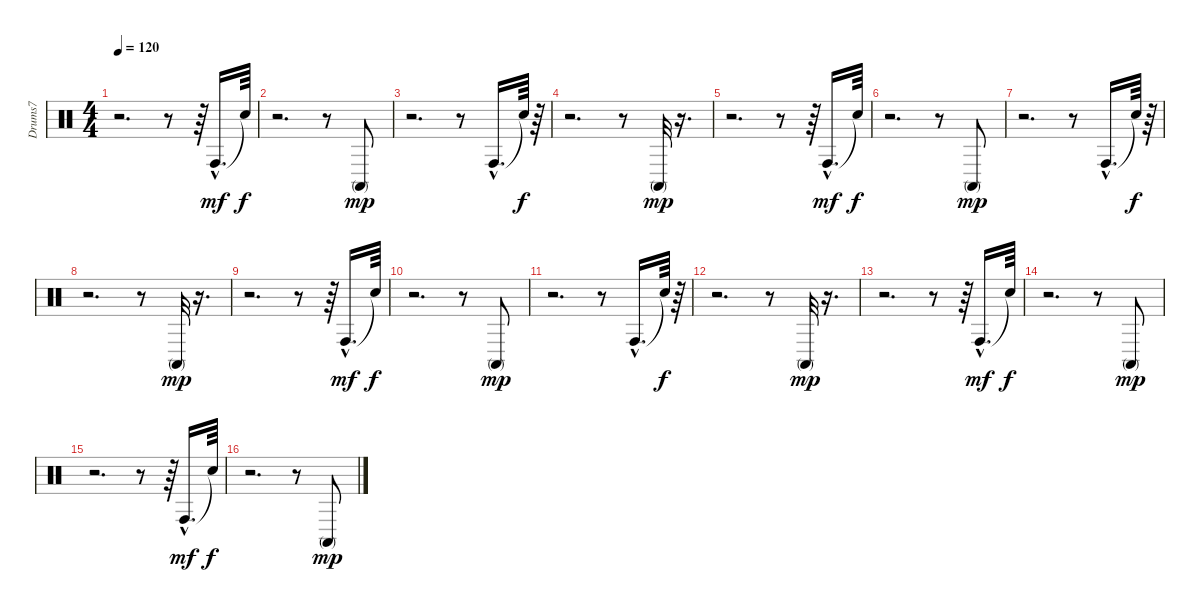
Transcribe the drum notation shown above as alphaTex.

\track ("Drums7" "Drums7") {instrument percussion}
\staff {score}
\articulation defaults
\ts (4 4)
\tempo 120
\clef neutral
\ks c
r.2{d dy mp} r.8 r.64 "Conga high (hit)"{hac}.16{d dy mf} "Snare (hit)"{t}.64{dy f} |
r.2{d} r.8 "Conga high (mute)".8{dy mp} |
r.2{d} r.8 "Conga high (hit)"{hac}.16{d} "Snare (hit)"{t}.64{dy f} r.64 |
r.2{d} r.8 "Conga high (mute)".32{dy mp} r.16{d} |
r.2{d} r.8 r.64 "Conga high (hit)"{hac}.16{d dy mf} "Snare (hit)"{t}.64{dy f} |
r.2{d} r.8 "Conga high (mute)".8{dy mp} |
r.2{d} r.8 "Conga high (hit)"{hac}.16{d} "Snare (hit)"{t}.64{dy f} r.64 |
r.2{d} r.8 "Conga high (mute)".32{dy mp} r.16{d} |
r.2{d} r.8 r.64 "Conga high (hit)"{hac}.16{d dy mf} "Snare (hit)"{t}.64{dy f} |
r.2{d} r.8 "Conga high (mute)".8{dy mp} |
r.2{d} r.8 "Conga high (hit)"{hac}.16{d} "Snare (hit)"{t}.64{dy f} r.64 |
r.2{d} r.8 "Conga high (mute)".32{dy mp} r.16{d} |
r.2{d} r.8 r.64 "Conga high (hit)"{hac}.16{d dy mf} "Snare (hit)"{t}.64{dy f} |
r.2{d} r.8 "Conga high (mute)".8{dy mp} |
r.2{d} r.8 r.64 "Conga high (hit)"{hac}.16{d dy mf} "Snare (hit)"{t}.64{dy f} |
r.2{d} r.8 "Conga high (mute)".8{dy mp}
